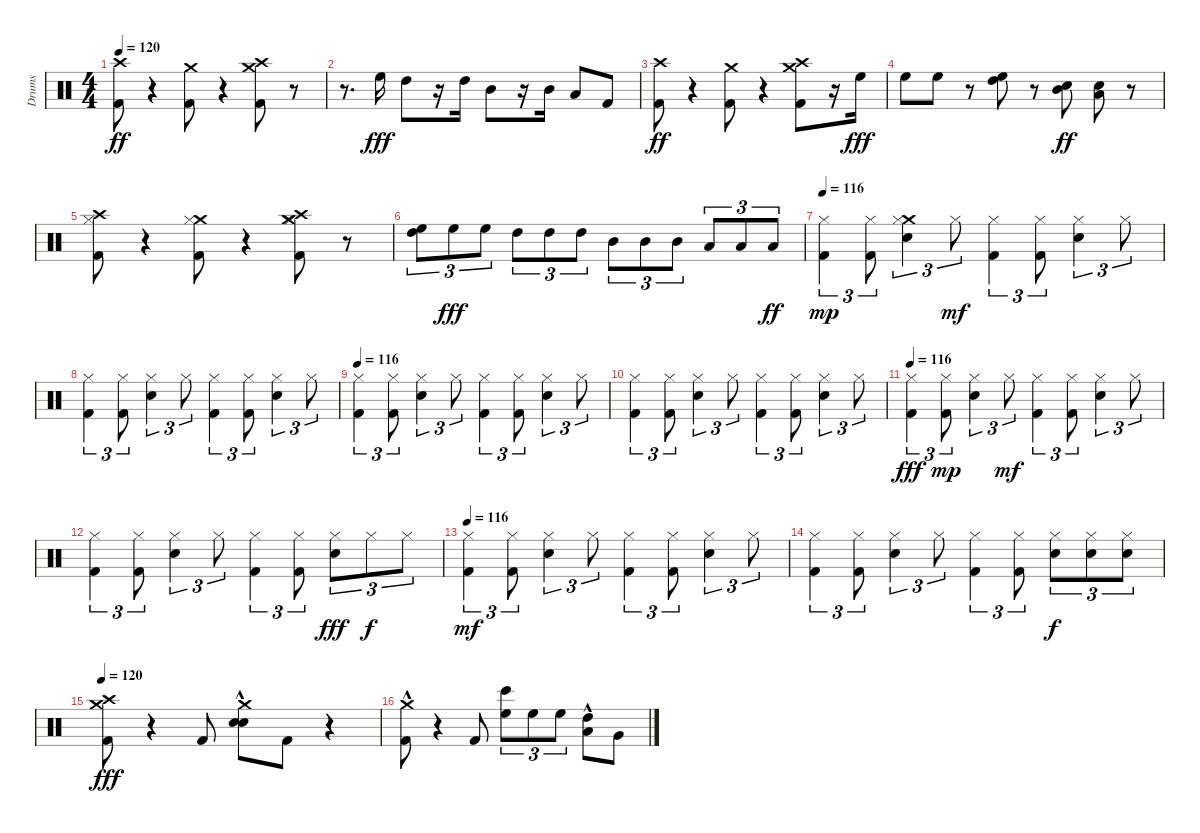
\track ("Drums" "Drums") {instrument percussion}
\staff {score}
\articulation defaults
\ts (4 4)
\tempo 120
\clef neutral
\ks c
("Crash high (hit)" "Kick (hit) 2").8{dy ff} r.4 ("Kick (hit) 2" "Crash medium (hit)").8 r.4 ("Kick (hit) 2" "Crash high (hit)" "Crash medium (hit)").8 r.8 |
r.8{d} "High Floor Tom (hit)".16{dy fff} "High Tom (hit)".8 r.16 "High Tom (hit)".16 "Mid Tom (hit)".8 r.16 "Mid Tom (hit)".16 "Low Tom (hit)".8 "Kick (hit) 2".8 |
("Kick (hit) 2" "Crash high (hit)").8{dy ff} r.4 ("Kick (hit) 2" "Crash medium (hit)").8 r.4 ("Kick (hit) 2" "Crash high (hit)" "Crash medium (hit)").8 r.16 "High Floor Tom (hit)".16{dy fff} |
"High Floor Tom (hit)".8 "High Floor Tom (hit)".8 r.8 ("High Tom (hit)" "High Floor Tom (hit)").8 r.8 ("Mid Tom (hit)" "Snare (hit) 2").8{dy ff} ("Low Tom (hit)" "Snare (hit) 2").8 r.8 |
("Kick (hit) 2" "Crash high (hit)" "Hi-Hat (closed)").8 r.4 ("Kick (hit) 2" "Crash medium (hit)" "Hi-Hat (closed)").8 r.4 ("Kick (hit) 2" "Crash high (hit)" "Crash medium (hit)" "Hi-Hat (closed)").8 r.8 |
("High Floor Tom (hit)" "High Tom (hit)").8{tu (3 2)} "High Floor Tom (hit)".8{tu (3 2) dy fff} "High Floor Tom (hit)".8{tu (3 2)} "High Tom (hit)".8{tu (3 2)} "High Tom (hit)".8{tu (3 2)} "High Tom (hit)".8{tu (3 2)} "Mid Tom (hit)".8{tu (3 2)} "Mid Tom (hit)".8{tu (3 2)} "Mid Tom (hit)".8{tu (3 2)} "Low Tom (hit)".8{tu (3 2)} "Low Tom (hit)".8{tu (3 2)} "Low Tom (hit)".8{tu (3 2) dy ff} |
\tempo 116
("Kick (hit) 2" "Hi-Hat (closed)").4{tu (3 2) dy mp} ("Kick (hit) 2" "Hi-Hat (closed)").8{tu (3 2)} ("Snare (hit) 2" "Crash medium (hit)" "Hi-Hat (closed)").4{tu (3 2)} "Hi-Hat (closed)".8{tu (3 2) dy mf} ("Kick (hit) 2" "Hi-Hat (closed)").4{tu (3 2)} ("Kick (hit) 2" "Hi-Hat (closed)").8{tu (3 2)} ("Snare (hit) 2" "Hi-Hat (closed)").4{tu (3 2)} "Hi-Hat (closed)".8{tu (3 2)} |
("Kick (hit) 2" "Hi-Hat (closed)").4{tu (3 2)} ("Kick (hit) 2" "Hi-Hat (closed)").8{tu (3 2)} ("Snare (hit) 2" "Hi-Hat (closed)").4{tu (3 2)} "Hi-Hat (closed)".8{tu (3 2)} ("Kick (hit) 2" "Hi-Hat (closed)").4{tu (3 2)} ("Kick (hit) 2" "Hi-Hat (closed)").8{tu (3 2)} ("Snare (hit) 2" "Hi-Hat (closed)").4{tu (3 2)} "Hi-Hat (closed)".8{tu (3 2)} |
\tempo 116
("Kick (hit) 2" "Hi-Hat (closed)").4{tu (3 2)} ("Kick (hit) 2" "Hi-Hat (closed)").8{tu (3 2)} ("Snare (hit) 2" "Hi-Hat (closed)").4{tu (3 2)} "Hi-Hat (closed)".8{tu (3 2)} ("Kick (hit) 2" "Hi-Hat (closed)").4{tu (3 2)} ("Kick (hit) 2" "Hi-Hat (closed)").8{tu (3 2)} ("Snare (hit) 2" "Hi-Hat (closed)").4{tu (3 2)} "Hi-Hat (closed)".8{tu (3 2)} |
("Kick (hit) 2" "Hi-Hat (closed)").4{tu (3 2)} ("Kick (hit) 2" "Hi-Hat (closed)").8{tu (3 2)} ("Snare (hit) 2" "Hi-Hat (closed)").4{tu (3 2)} "Hi-Hat (closed)".8{tu (3 2)} ("Kick (hit) 2" "Hi-Hat (closed)").4{tu (3 2)} ("Kick (hit) 2" "Hi-Hat (closed)").8{tu (3 2)} ("Snare (hit) 2" "Hi-Hat (closed)").4{tu (3 2)} "Hi-Hat (closed)".8{tu (3 2)} |
\tempo 116
("Hi-Hat (closed)" "Kick (hit) 2").4{tu (3 2) dy fff} ("Kick (hit) 2" "Hi-Hat (closed)").8{tu (3 2) dy mp} ("Snare (hit) 2" "Hi-Hat (closed)").4{tu (3 2)} "Hi-Hat (closed)".8{tu (3 2) dy mf} ("Kick (hit) 2" "Hi-Hat (closed)").4{tu (3 2)} ("Kick (hit) 2" "Hi-Hat (closed)").8{tu (3 2)} ("Snare (hit) 2" "Hi-Hat (closed)").4{tu (3 2)} "Hi-Hat (closed)".8{tu (3 2)} |
("Kick (hit) 2" "Hi-Hat (closed)").4{tu (3 2)} ("Kick (hit) 2" "Hi-Hat (closed)").8{tu (3 2)} ("Snare (hit) 2" "Hi-Hat (closed)").4{tu (3 2)} "Hi-Hat (closed)".8{tu (3 2)} ("Kick (hit) 2" "Hi-Hat (closed)").4{tu (3 2)} ("Kick (hit) 2" "Hi-Hat (closed)").8{tu (3 2)} ("Snare (hit) 2" "Hi-Hat (closed)").8{tu (3 2) dy fff} "Hi-Hat (closed)".8{tu (3 2) dy f} "Hi-Hat (closed)".8{tu (3 2)} |
\tempo 116
("Kick (hit) 2" "Hi-Hat (closed)").4{tu (3 2) dy mf} ("Kick (hit) 2" "Hi-Hat (closed)").8{tu (3 2)} ("Snare (hit) 2" "Hi-Hat (closed)").4{tu (3 2)} "Hi-Hat (closed)".8{tu (3 2)} ("Kick (hit) 2" "Hi-Hat (closed)").4{tu (3 2)} ("Kick (hit) 2" "Hi-Hat (closed)").8{tu (3 2)} ("Snare (hit) 2" "Hi-Hat (closed)").4{tu (3 2)} "Hi-Hat (closed)".8{tu (3 2)} |
("Kick (hit) 2" "Hi-Hat (closed)").4{tu (3 2)} ("Kick (hit) 2" "Hi-Hat (closed)").8{tu (3 2)} ("Snare (hit) 2" "Hi-Hat (closed)").4{tu (3 2)} "Hi-Hat (closed)".8{tu (3 2)} ("Kick (hit) 2" "Hi-Hat (closed)").4{tu (3 2)} ("Kick (hit) 2" "Hi-Hat (closed)").8{tu (3 2)} ("Hi-Hat (closed)" "Electric Snare (hit)").8{tu (3 2) dy f} ("Electric Snare (hit)" "Hi-Hat (closed)").8{tu (3 2)} ("Electric Snare (hit)" "Hi-Hat (closed)").8{tu (3 2)} |
\tempo 120
("Crash high (hit)" "Crash medium (hit)" "Kick (hit) 2").8{dy fff} r.4 "Kick (hit) 2".8 ("Snare (hit) 2" "Crash medium (hit)"{hac} "Electric Snare (hit)").8 "Kick (hit) 2".8 r.4 |
("Crash medium (hit)"{hac} "Kick (hit) 2").8 r.4 "Kick (hit) 2".8 ("High Floor Tom (hit)" "Bongo High (hit)").8{tu (3 2)} "High Floor Tom (hit)".8{tu (3 2)} "High Floor Tom (hit)".8{tu (3 2)} ("High Tom (hit)"{hac} "Low Tom (hit)").8 "Very Low Tom (hit)".8
